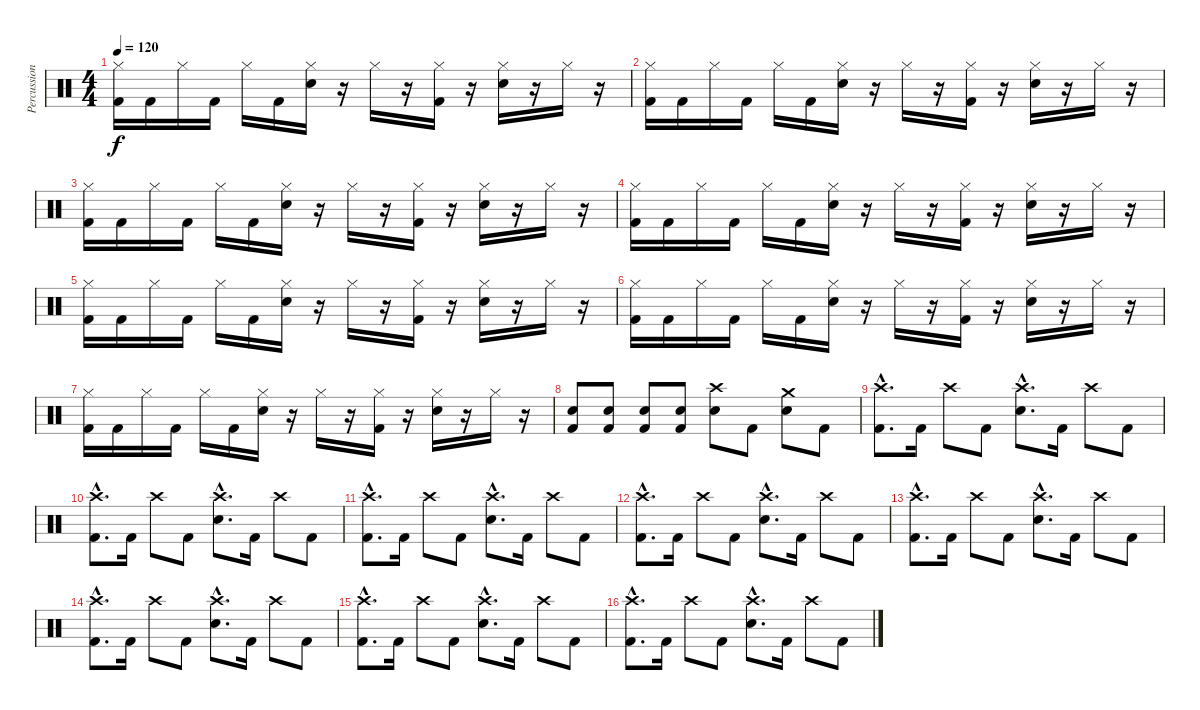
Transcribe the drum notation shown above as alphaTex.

\track ("Percussion" "Percussion") {instrument percussion}
\staff {score}
\articulation defaults
\ts (4 4)
\tempo 120
\clef neutral
\ks c
("Hi-Hat (closed)" "Kick (hit) 2").16{dy f} "Kick (hit) 2".16 "Hi-Hat (closed)".16 "Kick (hit) 2".16 "Hi-Hat (closed)".16 "Kick (hit) 2".16 ("Hi-Hat (closed)" "Electric Snare (hit)").16 r.16 "Hi-Hat (closed)".16 r.16 ("Hi-Hat (closed)" "Kick (hit) 2").16 r.16 ("Hi-Hat (closed)" "Electric Snare (hit)").16 r.16 "Hi-Hat (closed)".16 r.16 |
("Hi-Hat (closed)" "Kick (hit) 2").16 "Kick (hit) 2".16 "Hi-Hat (closed)".16 "Kick (hit) 2".16 "Hi-Hat (closed)".16 "Kick (hit) 2".16 ("Hi-Hat (closed)" "Electric Snare (hit)").16 r.16 "Hi-Hat (closed)".16 r.16 ("Hi-Hat (closed)" "Kick (hit) 2").16 r.16 ("Hi-Hat (closed)" "Electric Snare (hit)").16 r.16 "Hi-Hat (closed)".16 r.16 |
("Hi-Hat (closed)" "Kick (hit) 2").16 "Kick (hit) 2".16 "Hi-Hat (closed)".16 "Kick (hit) 2".16 "Hi-Hat (closed)".16 "Kick (hit) 2".16 ("Hi-Hat (closed)" "Electric Snare (hit)").16 r.16 "Hi-Hat (closed)".16 r.16 ("Hi-Hat (closed)" "Kick (hit) 2").16 r.16 ("Hi-Hat (closed)" "Electric Snare (hit)").16 r.16 "Hi-Hat (closed)".16 r.16 |
("Hi-Hat (closed)" "Kick (hit) 2").16 "Kick (hit) 2".16 "Hi-Hat (closed)".16 "Kick (hit) 2".16 "Hi-Hat (closed)".16 "Kick (hit) 2".16 ("Hi-Hat (closed)" "Electric Snare (hit)").16 r.16 "Hi-Hat (closed)".16 r.16 ("Hi-Hat (closed)" "Kick (hit) 2").16 r.16 ("Hi-Hat (closed)" "Electric Snare (hit)").16 r.16 "Hi-Hat (closed)".16 r.16 |
("Hi-Hat (closed)" "Kick (hit) 2").16 "Kick (hit) 2".16 "Hi-Hat (closed)".16 "Kick (hit) 2".16 "Hi-Hat (closed)".16 "Kick (hit) 2".16 ("Hi-Hat (closed)" "Electric Snare (hit)").16 r.16 "Hi-Hat (closed)".16 r.16 ("Hi-Hat (closed)" "Kick (hit) 2").16 r.16 ("Hi-Hat (closed)" "Electric Snare (hit)").16 r.16 "Hi-Hat (closed)".16 r.16 |
("Hi-Hat (closed)" "Kick (hit) 2").16 "Kick (hit) 2".16 "Hi-Hat (closed)".16 "Kick (hit) 2".16 "Hi-Hat (closed)".16 "Kick (hit) 2".16 ("Hi-Hat (closed)" "Electric Snare (hit)").16 r.16 "Hi-Hat (closed)".16 r.16 ("Hi-Hat (closed)" "Kick (hit) 2").16 r.16 ("Hi-Hat (closed)" "Electric Snare (hit)").16 r.16 "Hi-Hat (closed)".16 r.16 |
("Hi-Hat (closed)" "Kick (hit) 2").16 "Kick (hit) 2".16 "Hi-Hat (closed)".16 "Kick (hit) 2".16 "Hi-Hat (closed)".16 "Kick (hit) 2".16 ("Hi-Hat (closed)" "Electric Snare (hit)").16 r.16 "Hi-Hat (closed)".16 r.16 ("Hi-Hat (closed)" "Kick (hit) 2").16 r.16 ("Hi-Hat (closed)" "Electric Snare (hit)").16 r.16 "Hi-Hat (closed)".16 r.16 |
("Electric Snare (hit)" "Kick (hit) 2").8 ("Electric Snare (hit)" "Kick (hit) 2").8 ("Electric Snare (hit)" "Kick (hit) 2").8 ("Electric Snare (hit)" "Kick (hit) 2").8 ("Crash high (hit)" "Electric Snare (hit)").8 "Kick (hit) 2".8 ("Crash medium (hit)" "Electric Snare (hit)").8 "Kick (hit) 2".8 |
("Crash high (hit)"{hac} "Kick (hit) 2"{hac}).8{d} "Kick (hit) 2".16 "Crash high (hit)".8 "Kick (hit) 2".8 ("Crash high (hit)"{hac} "Electric Snare (hit)"{hac}).8{d} "Kick (hit) 2".16 "Crash high (hit)".8 "Kick (hit) 2".8 |
("Crash high (hit)"{hac} "Kick (hit) 2"{hac}).8{d} "Kick (hit) 2".16 "Crash high (hit)".8 "Kick (hit) 2".8 ("Crash high (hit)"{hac} "Electric Snare (hit)"{hac}).8{d} "Kick (hit) 2".16 "Crash high (hit)".8 "Kick (hit) 2".8 |
("Crash high (hit)"{hac} "Kick (hit) 2"{hac}).8{d} "Kick (hit) 2".16 "Crash high (hit)".8 "Kick (hit) 2".8 ("Crash high (hit)"{hac} "Electric Snare (hit)"{hac}).8{d} "Kick (hit) 2".16 "Crash high (hit)".8 "Kick (hit) 2".8 |
("Crash high (hit)"{hac} "Kick (hit) 2"{hac}).8{d} "Kick (hit) 2".16 "Crash high (hit)".8 "Kick (hit) 2".8 ("Crash high (hit)"{hac} "Electric Snare (hit)"{hac}).8{d} "Kick (hit) 2".16 "Crash high (hit)".8 "Kick (hit) 2".8 |
("Crash high (hit)"{hac} "Kick (hit) 2"{hac}).8{d} "Kick (hit) 2".16 "Crash high (hit)".8 "Kick (hit) 2".8 ("Crash high (hit)"{hac} "Electric Snare (hit)"{hac}).8{d} "Kick (hit) 2".16 "Crash high (hit)".8 "Kick (hit) 2".8 |
("Crash high (hit)"{hac} "Kick (hit) 2"{hac}).8{d} "Kick (hit) 2".16 "Crash high (hit)".8 "Kick (hit) 2".8 ("Crash high (hit)"{hac} "Electric Snare (hit)"{hac}).8{d} "Kick (hit) 2".16 "Crash high (hit)".8 "Kick (hit) 2".8 |
("Crash high (hit)"{hac} "Kick (hit) 2"{hac}).8{d} "Kick (hit) 2".16 "Crash high (hit)".8 "Kick (hit) 2".8 ("Crash high (hit)"{hac} "Electric Snare (hit)"{hac}).8{d} "Kick (hit) 2".16 "Crash high (hit)".8 "Kick (hit) 2".8 |
("Crash high (hit)"{hac} "Kick (hit) 2"{hac}).8{d} "Kick (hit) 2".16 "Crash high (hit)".8 "Kick (hit) 2".8 ("Crash high (hit)"{hac} "Electric Snare (hit)"{hac}).8{d} "Kick (hit) 2".16 "Crash high (hit)".8 "Kick (hit) 2".8
